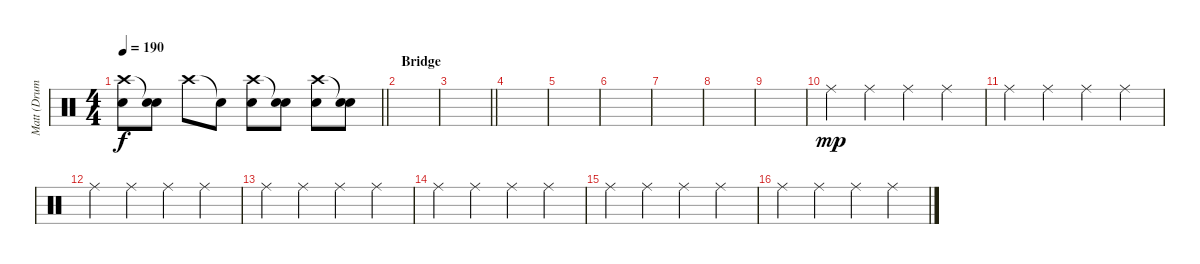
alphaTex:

\track ("Matt (Drums)" "Matt (Drum") {instrument percussion}
\staff {score}
\articulation defaults
\ts (4 4)
\tempo 190
\clef neutral
\barLineRight lightlight
\ks c
("Crash high (hit)" "Snare (hit) 2").8{dy f} ("Snare (hit)"{t} "Snare (hit) 2").8 "Crash high (hit)".8 "Snare (hit)"{t}.8 ("Crash high (hit)" "Snare (hit) 2").8 ("Snare (hit)"{t} "Snare (hit) 2").8 ("Crash high (hit)" "Snare (hit) 2").8 ("Snare (hit)"{t} "Snare (hit) 2").8 |
\section ("" "Bridge")
|
\barLineRight lightlight
|
|
|
|
|
|
|
"Ride (middle)".4{dy mp} "Ride (middle)".4 "Ride (middle)".4 "Ride (middle)".4 |
"Ride (middle)".4 "Ride (middle)".4 "Ride (middle)".4 "Ride (middle)".4 |
"Ride (middle)".4 "Ride (middle)".4 "Ride (middle)".4 "Ride (middle)".4 |
"Ride (middle)".4 "Ride (middle)".4 "Ride (middle)".4 "Ride (middle)".4 |
"Ride (middle)".4 "Ride (middle)".4 "Ride (middle)".4 "Ride (middle)".4 |
"Ride (middle)".4 "Ride (middle)".4 "Ride (middle)".4 "Ride (middle)".4 |
"Ride (middle)".4 "Ride (middle)".4 "Ride (middle)".4 "Ride (middle)".4
